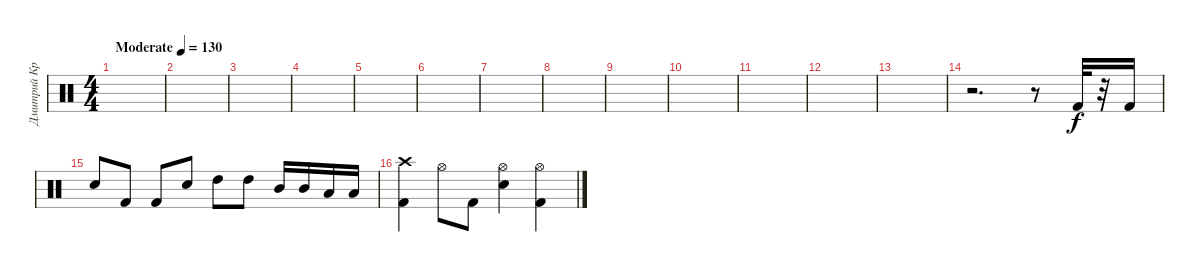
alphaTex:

\track ("Дмитрий Кривенков" "Дмитрий Кр") {instrument percussion}
\staff {score}
\articulation defaults
\ts (4 4)
\tempo (130 "Moderate")
\clef neutral
\ks c
|
|
|
|
|
|
|
|
|
|
|
|
|
r.2{d} r.8 "Kick (hit) 2".32 r.32 "Kick (hit) 2".16 |
"Electric Snare (hit)".8 "Kick (hit) 2".8 "Kick (hit) 2".8 "Electric Snare (hit)".8 "High Tom (hit)".8 "High Tom (hit)".8 "Mid Tom (hit)".16 "Mid Tom (hit)".16 "Low Tom (hit)".16 "Low Tom (hit)".16 |
("Crash high (hit)" "Kick (hit) 2").4 "Hi-Hat (open)".8 "Kick (hit) 2".8 ("Hi-Hat (open)" "Electric Snare (hit)").4 ("Kick (hit) 2" "Hi-Hat (open)").4
